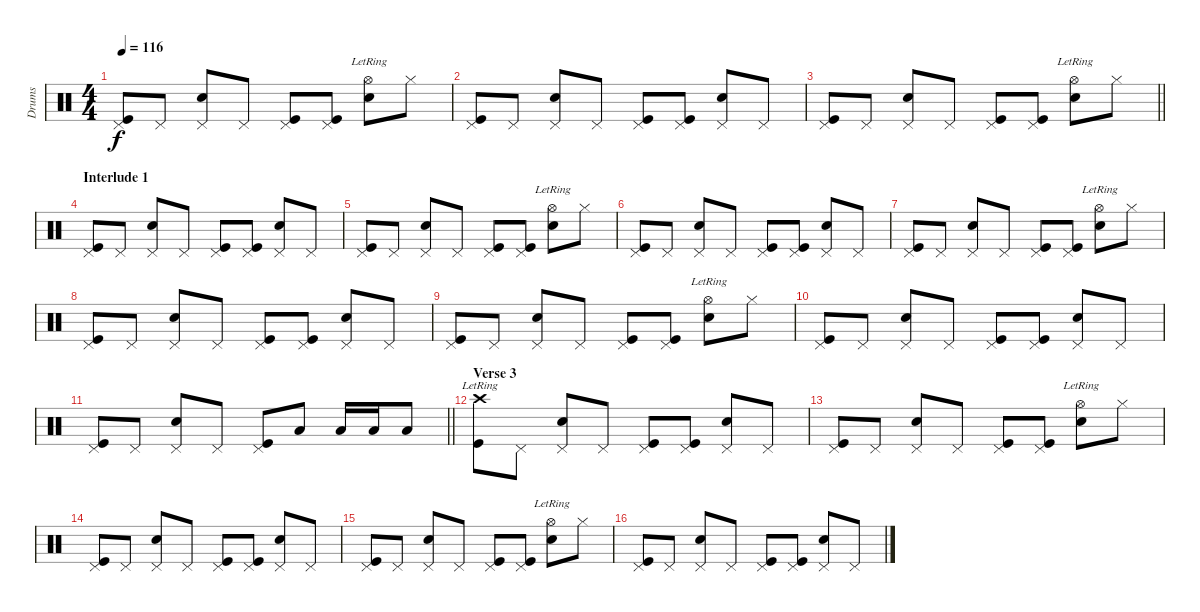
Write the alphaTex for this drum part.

\track ("Drums" "Drums") {instrument percussion}
\staff {score}
\articulation defaults
\ts (4 4)
\tempo 116
\clef neutral
\ks c
("Pedal Hi-Hat (hit)" "Kick (hit)").8{dy f} "Pedal Hi-Hat (hit)".8 ("Pedal Hi-Hat (hit)" "Snare (hit) 2").8 "Pedal Hi-Hat (hit)".8 ("Pedal Hi-Hat (hit)" "Kick (hit)").8 ("Pedal Hi-Hat (hit)" "Kick (hit)").8 ("Hi-Hat (open)"{lr} "Snare (hit) 2").8 "Hi-Hat (closed)".8 |
("Pedal Hi-Hat (hit)" "Kick (hit)").8 "Pedal Hi-Hat (hit)".8 ("Pedal Hi-Hat (hit)" "Snare (hit) 2").8 "Pedal Hi-Hat (hit)".8 ("Pedal Hi-Hat (hit)" "Kick (hit)").8 ("Pedal Hi-Hat (hit)" "Kick (hit)").8 ("Pedal Hi-Hat (hit)" "Snare (hit) 2").8 "Pedal Hi-Hat (hit)".8 |
\barLineRight lightlight
("Pedal Hi-Hat (hit)" "Kick (hit)").8 "Pedal Hi-Hat (hit)".8 ("Pedal Hi-Hat (hit)" "Snare (hit) 2").8 "Pedal Hi-Hat (hit)".8 ("Pedal Hi-Hat (hit)" "Kick (hit)").8 ("Pedal Hi-Hat (hit)" "Kick (hit)").8 ("Hi-Hat (open)"{lr} "Snare (hit) 2").8 "Hi-Hat (closed)".8 |
\section ("" "Interlude 1")
("Pedal Hi-Hat (hit)" "Kick (hit)").8 "Pedal Hi-Hat (hit)".8 ("Pedal Hi-Hat (hit)" "Snare (hit) 2").8 "Pedal Hi-Hat (hit)".8 ("Pedal Hi-Hat (hit)" "Kick (hit)").8 ("Pedal Hi-Hat (hit)" "Kick (hit)").8 ("Pedal Hi-Hat (hit)" "Snare (hit) 2").8 "Pedal Hi-Hat (hit)".8 |
("Pedal Hi-Hat (hit)" "Kick (hit)").8 "Pedal Hi-Hat (hit)".8 ("Pedal Hi-Hat (hit)" "Snare (hit) 2").8 "Pedal Hi-Hat (hit)".8 ("Pedal Hi-Hat (hit)" "Kick (hit)").8 ("Pedal Hi-Hat (hit)" "Kick (hit)").8 ("Hi-Hat (open)"{lr} "Snare (hit) 2").8 "Hi-Hat (closed)".8 |
("Pedal Hi-Hat (hit)" "Kick (hit)").8 "Pedal Hi-Hat (hit)".8 ("Pedal Hi-Hat (hit)" "Snare (hit) 2").8 "Pedal Hi-Hat (hit)".8 ("Pedal Hi-Hat (hit)" "Kick (hit)").8 ("Pedal Hi-Hat (hit)" "Kick (hit)").8 ("Pedal Hi-Hat (hit)" "Snare (hit) 2").8 "Pedal Hi-Hat (hit)".8 |
("Pedal Hi-Hat (hit)" "Kick (hit)").8 "Pedal Hi-Hat (hit)".8 ("Pedal Hi-Hat (hit)" "Snare (hit) 2").8 "Pedal Hi-Hat (hit)".8 ("Pedal Hi-Hat (hit)" "Kick (hit)").8 ("Pedal Hi-Hat (hit)" "Kick (hit)").8 ("Hi-Hat (open)"{lr} "Snare (hit) 2").8 "Hi-Hat (closed)".8 |
("Pedal Hi-Hat (hit)" "Kick (hit)").8 "Pedal Hi-Hat (hit)".8 ("Pedal Hi-Hat (hit)" "Snare (hit) 2").8 "Pedal Hi-Hat (hit)".8 ("Pedal Hi-Hat (hit)" "Kick (hit)").8 ("Pedal Hi-Hat (hit)" "Kick (hit)").8 ("Pedal Hi-Hat (hit)" "Snare (hit) 2").8 "Pedal Hi-Hat (hit)".8 |
("Pedal Hi-Hat (hit)" "Kick (hit)").8 "Pedal Hi-Hat (hit)".8 ("Pedal Hi-Hat (hit)" "Snare (hit) 2").8 "Pedal Hi-Hat (hit)".8 ("Pedal Hi-Hat (hit)" "Kick (hit)").8 ("Pedal Hi-Hat (hit)" "Kick (hit)").8 ("Hi-Hat (open)"{lr} "Snare (hit) 2").8 "Hi-Hat (closed)".8 |
("Pedal Hi-Hat (hit)" "Kick (hit)").8 "Pedal Hi-Hat (hit)".8 ("Pedal Hi-Hat (hit)" "Snare (hit) 2").8 "Pedal Hi-Hat (hit)".8 ("Pedal Hi-Hat (hit)" "Kick (hit)").8 ("Pedal Hi-Hat (hit)" "Kick (hit)").8 ("Pedal Hi-Hat (hit)" "Snare (hit) 2").8 "Pedal Hi-Hat (hit)".8 |
\barLineRight lightlight
("Pedal Hi-Hat (hit)" "Kick (hit)").8 "Pedal Hi-Hat (hit)".8 ("Pedal Hi-Hat (hit)" "Snare (hit) 2").8 "Pedal Hi-Hat (hit)".8 ("Pedal Hi-Hat (hit)" "Kick (hit)").8 "Low Tom (hit)".8 "Low Tom (hit)".16 "Low Tom (hit)".16 "Low Tom (hit)".8 |
\section ("" "Verse 3")
("Crash high (hit)"{lr} "Kick (hit)").8 "Pedal Hi-Hat (hit)".8 ("Pedal Hi-Hat (hit)" "Snare (hit) 2").8 "Pedal Hi-Hat (hit)".8 ("Pedal Hi-Hat (hit)" "Kick (hit)").8 ("Pedal Hi-Hat (hit)" "Kick (hit)").8 ("Pedal Hi-Hat (hit)" "Snare (hit) 2").8 "Pedal Hi-Hat (hit)".8 |
("Pedal Hi-Hat (hit)" "Kick (hit)").8 "Pedal Hi-Hat (hit)".8 ("Pedal Hi-Hat (hit)" "Snare (hit) 2").8 "Pedal Hi-Hat (hit)".8 ("Pedal Hi-Hat (hit)" "Kick (hit)").8 ("Pedal Hi-Hat (hit)" "Kick (hit)").8 ("Hi-Hat (open)"{lr} "Snare (hit) 2").8 "Hi-Hat (closed)".8 |
("Pedal Hi-Hat (hit)" "Kick (hit)").8 "Pedal Hi-Hat (hit)".8 ("Pedal Hi-Hat (hit)" "Snare (hit) 2").8 "Pedal Hi-Hat (hit)".8 ("Pedal Hi-Hat (hit)" "Kick (hit)").8 ("Pedal Hi-Hat (hit)" "Kick (hit)").8 ("Pedal Hi-Hat (hit)" "Snare (hit) 2").8 "Pedal Hi-Hat (hit)".8 |
("Pedal Hi-Hat (hit)" "Kick (hit)").8 "Pedal Hi-Hat (hit)".8 ("Pedal Hi-Hat (hit)" "Snare (hit) 2").8 "Pedal Hi-Hat (hit)".8 ("Pedal Hi-Hat (hit)" "Kick (hit)").8 ("Pedal Hi-Hat (hit)" "Kick (hit)").8 ("Hi-Hat (open)"{lr} "Snare (hit) 2").8 "Hi-Hat (closed)".8 |
("Pedal Hi-Hat (hit)" "Kick (hit)").8 "Pedal Hi-Hat (hit)".8 ("Pedal Hi-Hat (hit)" "Snare (hit) 2").8 "Pedal Hi-Hat (hit)".8 ("Pedal Hi-Hat (hit)" "Kick (hit)").8 ("Pedal Hi-Hat (hit)" "Kick (hit)").8 ("Pedal Hi-Hat (hit)" "Snare (hit) 2").8 "Pedal Hi-Hat (hit)".8
